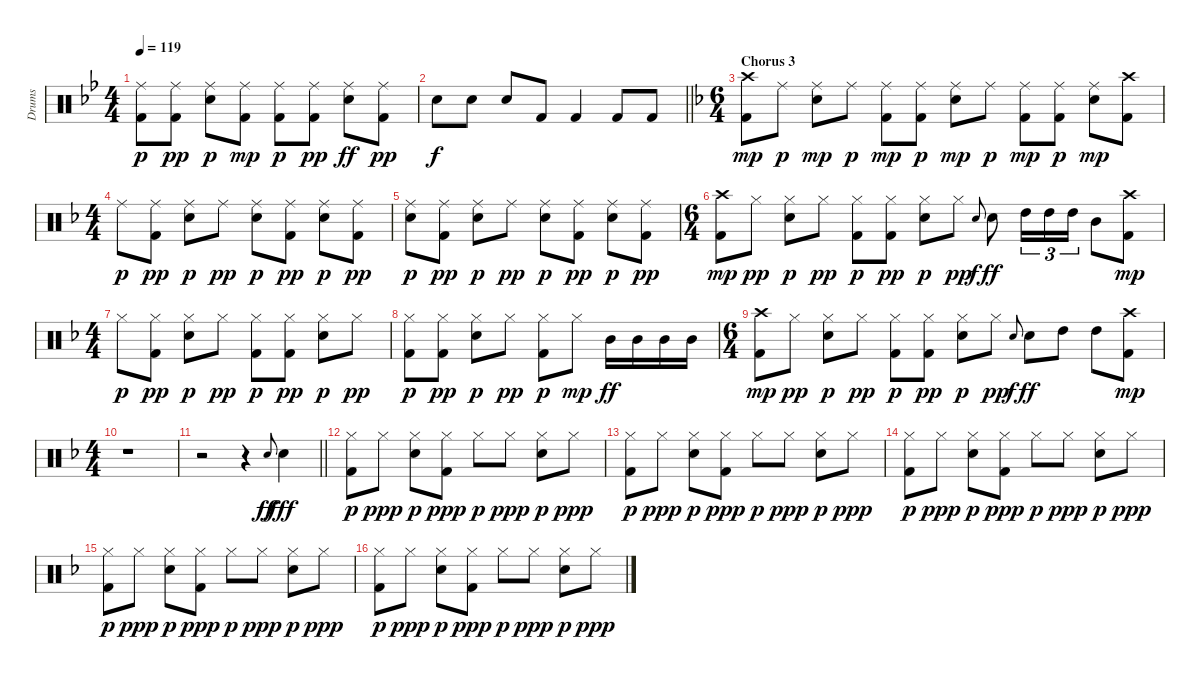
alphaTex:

\track ("Drums" "Drums") {instrument percussion}
\staff {score}
\articulation defaults
\ts (4 4)
\tempo 119
\clef neutral
\ks bb
("Ride (middle)" "Kick (hit) 2").8{dy p} ("Ride (middle)" "Kick (hit) 2").8{dy pp} ("Ride (middle)" "Electric Snare (hit)").8{dy p} ("Ride (middle)" "Kick (hit) 2").8{dy mp} ("Ride (middle)" "Kick (hit) 2").8{dy p} ("Ride (middle)" "Kick (hit) 2").8{dy pp} ("Ride (middle)" "Electric Snare (hit)").8{dy ff} ("Ride (middle)" "Kick (hit) 2").8{dy pp} |
\barLineRight lightlight "Electric Snare (hit)".8{dy f} "Electric Snare (hit)".8 "Electric Snare (hit)".8 "Kick (hit) 2".8 "Kick (hit) 2".4 "Kick (hit) 2".8 "Kick (hit) 2".8
|
\ts (6 4)
\section ("" "Chorus 3")
\ks f
("Kick (hit) 2" "Crash high (hit)").8{dy mp} "Ride (middle)".8{dy p} ("Ride (middle)" "Electric Snare (hit)").8{dy mp} "Ride (middle)".8{dy p} ("Ride (middle)" "Kick (hit) 2").8{dy mp} ("Ride (middle)" "Kick (hit) 2").8{dy p} ("Ride (middle)" "Electric Snare (hit)").8{dy mp} "Ride (middle)".8{dy p} ("Ride (middle)" "Kick (hit) 2").8{dy mp} ("Ride (middle)" "Kick (hit) 2").8{dy p} ("Ride (middle)" "Electric Snare (hit)").8{dy mp} ("Kick (hit) 2" "Crash high (hit)").8 |
\ts (4 4)
"Ride (middle)".8{dy p} ("Ride (middle)" "Kick (hit) 2").8{dy pp} ("Ride (middle)" "Electric Snare (hit)").8{dy p} "Ride (middle)".8{dy pp} ("Ride (middle)" "Electric Snare (hit)").8{dy p} ("Ride (middle)" "Kick (hit) 2").8{dy pp} ("Ride (middle)" "Electric Snare (hit)").8{dy p} ("Ride (middle)" "Kick (hit) 2").8{dy pp} |
("Ride (middle)" "Electric Snare (hit)").8{dy p} ("Ride (middle)" "Kick (hit) 2").8{dy pp} ("Ride (middle)" "Electric Snare (hit)").8{dy p} "Ride (middle)".8{dy pp} ("Ride (middle)" "Electric Snare (hit)").8{dy p} ("Ride (middle)" "Kick (hit) 2").8{dy pp} ("Ride (middle)" "Electric Snare (hit)").8{dy p} ("Ride (middle)" "Kick (hit) 2").8{dy pp} |
\ts (6 4)
("Kick (hit) 2" "Crash high (hit)").8{dy mp} "Hi-Hat (closed)".8{dy pp} ("Hi-Hat (closed)" "Electric Snare (hit)").8{dy p} "Hi-Hat (closed)".8{dy pp} ("Kick (hit) 2" "Hi-Hat (closed)").8{dy p} ("Hi-Hat (closed)" "Kick (hit) 2").8{dy pp} ("Hi-Hat (closed)" "Electric Snare (hit)").8{dy p} "Hi-Hat (closed)".8{dy pp} "Electric Snare (hit)".8{gr onbeat dy f} "Electric Snare (hit)".8{dy ff} "High Tom (hit)".16{tu (3 2)} "High Tom (hit)".16{tu (3 2)} "High Tom (hit)".16{tu (3 2)} "Mid Tom (hit)".8 ("Kick (hit) 2" "Crash high (hit)").8{dy mp} |
\ts (4 4)
"Hi-Hat (closed)".8{dy p} ("Hi-Hat (closed)" "Kick (hit) 2").8{dy pp} ("Hi-Hat (closed)" "Electric Snare (hit)").8{dy p} "Hi-Hat (closed)".8{dy pp} ("Hi-Hat (closed)" "Kick (hit) 2").8{dy p} ("Hi-Hat (closed)" "Kick (hit) 2").8{dy pp} ("Hi-Hat (closed)" "Electric Snare (hit)").8{dy p} "Hi-Hat (closed)".8{dy pp} |
("Hi-Hat (closed)" "Kick (hit) 2").8{dy p} ("Hi-Hat (closed)" "Kick (hit) 2").8{dy pp} ("Hi-Hat (closed)" "Electric Snare (hit)").8{dy p} "Hi-Hat (closed)".8{dy pp} ("Hi-Hat (closed)" "Kick (hit) 2").8{dy p} "Hi-Hat (closed)".8{dy mp} "Mid Tom (hit)".16{dy ff} "Mid Tom (hit)".16 "Mid Tom (hit)".16 "Mid Tom (hit)".16 |
\ts (6 4)
("Kick (hit) 2" "Crash high (hit)").8{dy mp} "Hi-Hat (closed)".8{dy pp} ("Hi-Hat (closed)" "Electric Snare (hit)").8{dy p} "Hi-Hat (closed)".8{dy pp} ("Kick (hit) 2" "Hi-Hat (closed)").8{dy p} ("Hi-Hat (closed)" "Kick (hit) 2").8{dy pp} ("Hi-Hat (closed)" "Electric Snare (hit)").8{dy p} "Hi-Hat (closed)".8{dy pp} "Electric Snare (hit)".8{gr onbeat dy f} "Electric Snare (hit)".8{dy ff} "High Tom (hit)".8 "High Tom (hit)".8 ("Kick (hit) 2" "Crash high (hit)").8{dy mp} |
\ts (4 4)
r.1 |
\barLineRight lightlight
r.2 r.4 "Electric Snare (hit)".8{gr onbeat dy ff} "Electric Snare (hit)".4{dy fff} |
\section ("" "")
("Hi-Hat (closed)" "Kick (hit) 2").8{dy p} "Hi-Hat (closed)".8{dy ppp} ("Hi-Hat (closed)" "Electric Snare (hit)").8{dy p} ("Hi-Hat (closed)" "Kick (hit) 2").8{dy ppp} "Hi-Hat (closed)".8{dy p} "Hi-Hat (closed)".8{dy ppp} ("Hi-Hat (closed)" "Electric Snare (hit)").8{dy p} "Hi-Hat (closed)".8{dy ppp} |
("Hi-Hat (closed)" "Kick (hit) 2").8{dy p} "Hi-Hat (closed)".8{dy ppp} ("Hi-Hat (closed)" "Electric Snare (hit)").8{dy p} ("Hi-Hat (closed)" "Kick (hit) 2").8{dy ppp} "Hi-Hat (closed)".8{dy p} "Hi-Hat (closed)".8{dy ppp} ("Hi-Hat (closed)" "Electric Snare (hit)").8{dy p} "Hi-Hat (closed)".8{dy ppp} |
("Hi-Hat (closed)" "Kick (hit) 2").8{dy p} "Hi-Hat (closed)".8{dy ppp} ("Hi-Hat (closed)" "Electric Snare (hit)").8{dy p} ("Hi-Hat (closed)" "Kick (hit) 2").8{dy ppp} "Hi-Hat (closed)".8{dy p} "Hi-Hat (closed)".8{dy ppp} ("Hi-Hat (closed)" "Electric Snare (hit)").8{dy p} "Hi-Hat (closed)".8{dy ppp} |
("Hi-Hat (closed)" "Kick (hit) 2").8{dy p} "Hi-Hat (closed)".8{dy ppp} ("Hi-Hat (closed)" "Electric Snare (hit)").8{dy p} ("Hi-Hat (closed)" "Kick (hit) 2").8{dy ppp} "Hi-Hat (closed)".8{dy p} "Hi-Hat (closed)".8{dy ppp} ("Hi-Hat (closed)" "Electric Snare (hit)").8{dy p} "Hi-Hat (closed)".8{dy ppp} |
("Hi-Hat (closed)" "Kick (hit) 2").8{dy p} "Hi-Hat (closed)".8{dy ppp} ("Hi-Hat (closed)" "Electric Snare (hit)").8{dy p} ("Hi-Hat (closed)" "Kick (hit) 2").8{dy ppp} "Hi-Hat (closed)".8{dy p} "Hi-Hat (closed)".8{dy ppp} ("Hi-Hat (closed)" "Electric Snare (hit)").8{dy p} "Hi-Hat (closed)".8{dy ppp}
